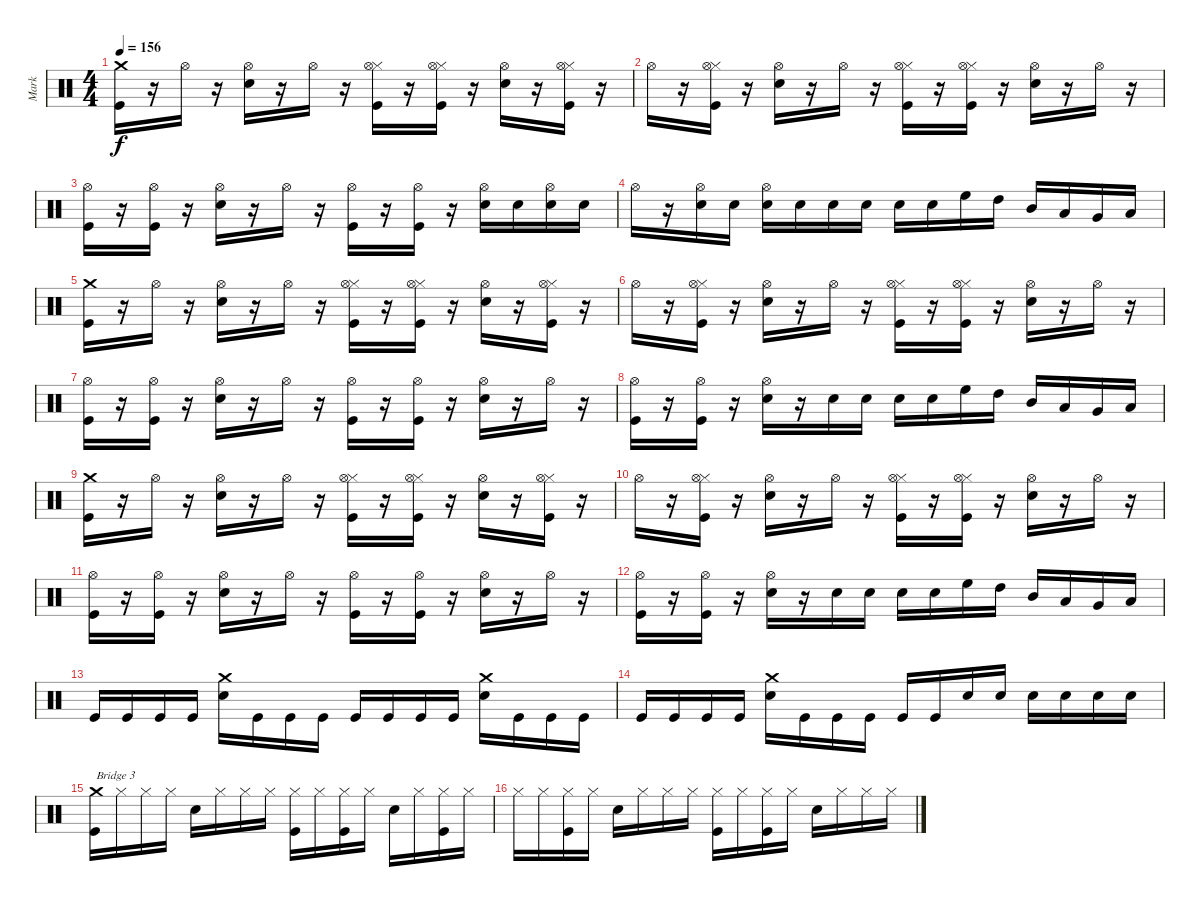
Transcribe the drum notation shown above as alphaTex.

\track ("Mark" "Mark") {instrument percussion}
\staff {score}
\articulation defaults
\ts (4 4)
\tempo 156
\clef neutral
\ks c
("Kick (hit)" "Crash medium (hit)").16{dy f} r.16 "Hi-Hat (open)".16 r.16 ("Hi-Hat (open)" "Snare (hit) 2").16 r.16 "Hi-Hat (open)".16 r.16 ("Kick (hit)" "Hi-Hat (closed)" "Hi-Hat (open)").16 r.16 ("Kick (hit)" "Hi-Hat (closed)" "Hi-Hat (open)").16 r.16 ("Hi-Hat (open)" "Snare (hit) 2").16 r.16 ("Kick (hit)" "Hi-Hat (closed)" "Hi-Hat (open)").16 r.16 |
"Hi-Hat (open)".16 r.16 ("Kick (hit)" "Hi-Hat (closed)" "Hi-Hat (open)").16 r.16 ("Hi-Hat (open)" "Snare (hit) 2").16 r.16 "Hi-Hat (open)".16 r.16 ("Kick (hit)" "Hi-Hat (closed)" "Hi-Hat (open)").16 r.16 ("Kick (hit)" "Hi-Hat (closed)" "Hi-Hat (open)").16 r.16 ("Hi-Hat (open)" "Snare (hit) 2").16 r.16 "Hi-Hat (open)".16 r.16 |
("Kick (hit)" "Hi-Hat (open)").16 r.16 ("Kick (hit)" "Hi-Hat (open)").16 r.16 ("Snare (hit) 2" "Hi-Hat (open)").16 r.16 "Hi-Hat (open)".16 r.16 ("Kick (hit)" "Hi-Hat (open)").16 r.16 ("Kick (hit)" "Hi-Hat (open)").16 r.16 ("Snare (hit) 2" "Hi-Hat (open)").16 "Snare (hit) 2".16 ("Snare (hit) 2" "Hi-Hat (open)").16 "Snare (hit) 2".16 |
"Hi-Hat (open)".16 r.16 ("Snare (hit) 2" "Hi-Hat (open)").16 "Snare (hit) 2".16 ("Snare (hit) 2" "Hi-Hat (open)").16 "Snare (hit) 2".16 "Snare (hit) 2".16 "Snare (hit) 2".16 "Snare (hit) 2".16 "Snare (hit) 2".16 "High Floor Tom (hit)".16 "High Tom (hit)".16 "Mid Tom (hit)".16 "Low Tom (hit)".16 "Very Low Tom (hit)".16 "Low Floor Tom (hit)".16 |
("Kick (hit)" "Crash medium (hit)").16 r.16 "Hi-Hat (open)".16 r.16 ("Hi-Hat (open)" "Snare (hit) 2").16 r.16 "Hi-Hat (open)".16 r.16 ("Kick (hit)" "Hi-Hat (closed)" "Hi-Hat (open)").16 r.16 ("Kick (hit)" "Hi-Hat (closed)" "Hi-Hat (open)").16 r.16 ("Hi-Hat (open)" "Snare (hit) 2").16 r.16 ("Kick (hit)" "Hi-Hat (closed)" "Hi-Hat (open)").16 r.16 |
"Hi-Hat (open)".16 r.16 ("Kick (hit)" "Hi-Hat (closed)" "Hi-Hat (open)").16 r.16 ("Hi-Hat (open)" "Snare (hit) 2").16 r.16 "Hi-Hat (open)".16 r.16 ("Kick (hit)" "Hi-Hat (closed)" "Hi-Hat (open)").16 r.16 ("Kick (hit)" "Hi-Hat (closed)" "Hi-Hat (open)").16 r.16 ("Hi-Hat (open)" "Snare (hit) 2").16 r.16 "Hi-Hat (open)".16 r.16 |
("Kick (hit)" "Hi-Hat (open)").16 r.16 ("Kick (hit)" "Hi-Hat (open)").16 r.16 ("Snare (hit) 2" "Hi-Hat (open)").16 r.16 "Hi-Hat (open)".16 r.16 ("Kick (hit)" "Hi-Hat (open)").16 r.16 ("Kick (hit)" "Hi-Hat (open)").16 r.16 ("Snare (hit) 2" "Hi-Hat (open)").16 r.16 "Hi-Hat (open)".16 r.16 |
("Kick (hit)" "Hi-Hat (open)").16 r.16 ("Kick (hit)" "Hi-Hat (open)").16 r.16 ("Snare (hit) 2" "Hi-Hat (open)").16 r.16 "Snare (hit) 2".16 "Snare (hit) 2".16 "Snare (hit) 2".16 "Snare (hit) 2".16 "High Floor Tom (hit)".16 "High Tom (hit)".16 "Mid Tom (hit)".16 "Low Tom (hit)".16 "Very Low Tom (hit)".16 "Low Floor Tom (hit)".16 |
("Kick (hit)" "Crash medium (hit)").16 r.16 "Hi-Hat (open)".16 r.16 ("Hi-Hat (open)" "Snare (hit) 2").16 r.16 "Hi-Hat (open)".16 r.16 ("Kick (hit)" "Hi-Hat (closed)" "Hi-Hat (open)").16 r.16 ("Kick (hit)" "Hi-Hat (closed)" "Hi-Hat (open)").16 r.16 ("Hi-Hat (open)" "Snare (hit) 2").16 r.16 ("Kick (hit)" "Hi-Hat (closed)" "Hi-Hat (open)").16 r.16 |
"Hi-Hat (open)".16 r.16 ("Kick (hit)" "Hi-Hat (closed)" "Hi-Hat (open)").16 r.16 ("Hi-Hat (open)" "Snare (hit) 2").16 r.16 "Hi-Hat (open)".16 r.16 ("Kick (hit)" "Hi-Hat (closed)" "Hi-Hat (open)").16 r.16 ("Kick (hit)" "Hi-Hat (closed)" "Hi-Hat (open)").16 r.16 ("Hi-Hat (open)" "Snare (hit) 2").16 r.16 "Hi-Hat (open)".16 r.16 |
("Kick (hit)" "Hi-Hat (open)").16 r.16 ("Kick (hit)" "Hi-Hat (open)").16 r.16 ("Snare (hit) 2" "Hi-Hat (open)").16 r.16 "Hi-Hat (open)".16 r.16 ("Kick (hit)" "Hi-Hat (open)").16 r.16 ("Kick (hit)" "Hi-Hat (open)").16 r.16 ("Snare (hit) 2" "Hi-Hat (open)").16 r.16 "Hi-Hat (open)".16 r.16 |
("Kick (hit)" "Hi-Hat (open)").16 r.16 ("Kick (hit)" "Hi-Hat (open)").16 r.16 ("Snare (hit) 2" "Hi-Hat (open)").16 r.16 "Snare (hit) 2".16 "Snare (hit) 2".16 "Snare (hit) 2".16 "Snare (hit) 2".16 "High Floor Tom (hit)".16 "High Tom (hit)".16 "Mid Tom (hit)".16 "Low Tom (hit)".16 "Very Low Tom (hit)".16 "Low Floor Tom (hit)".16 |
"Kick (hit)".16 "Kick (hit)".16 "Kick (hit)".16 "Kick (hit)".16 ("Snare (hit) 2" "Crash medium (hit)").16 "Kick (hit)".16 "Kick (hit)".16 "Kick (hit)".16 "Kick (hit)".16 "Kick (hit)".16 "Kick (hit)".16 "Kick (hit)".16 ("Snare (hit) 2" "Crash medium (hit)").16 "Kick (hit)".16 "Kick (hit)".16 "Kick (hit)".16 |
"Kick (hit)".16 "Kick (hit)".16 "Kick (hit)".16 "Kick (hit)".16 ("Snare (hit) 2" "Crash medium (hit)").16 "Kick (hit)".16 "Kick (hit)".16 "Kick (hit)".16 "Kick (hit)".16 "Kick (hit)".16 "Snare (hit) 2".16 "Snare (hit) 2".16 "Snare (hit) 2".16 "Snare (hit) 2".16 "Snare (hit) 2".16 "Snare (hit) 2".16 |
("Kick (hit)" "Crash medium (hit)").16{txt "Bridge 3"} "Hi-Hat (closed)".16 "Hi-Hat (closed)".16 "Hi-Hat (closed)".16 "Snare (hit) 2".16 "Hi-Hat (closed)".16 "Hi-Hat (closed)".16 "Hi-Hat (closed)".16 ("Kick (hit)" "Hi-Hat (closed)").16 "Hi-Hat (closed)".16 ("Kick (hit)" "Hi-Hat (closed)").16 "Hi-Hat (closed)".16 "Snare (hit) 2".16 "Hi-Hat (closed)".16 ("Kick (hit)" "Hi-Hat (closed)").16 "Hi-Hat (closed)".16 |
"Hi-Hat (closed)".16 "Hi-Hat (closed)".16 ("Kick (hit)" "Hi-Hat (closed)").16 "Hi-Hat (closed)".16 "Snare (hit) 2".16 "Hi-Hat (closed)".16 "Hi-Hat (closed)".16 "Hi-Hat (closed)".16 ("Kick (hit)" "Hi-Hat (closed)").16 "Hi-Hat (closed)".16 ("Kick (hit)" "Hi-Hat (closed)").16 "Hi-Hat (closed)".16 "Snare (hit) 2".16 "Hi-Hat (closed)".16 "Hi-Hat (closed)".16 "Hi-Hat (closed)".16
